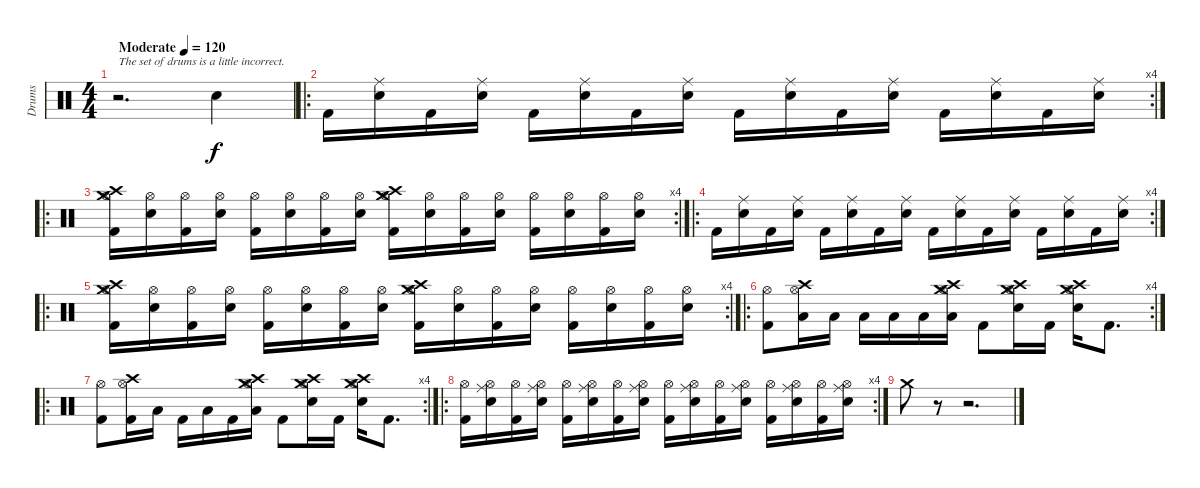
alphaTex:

\track ("Drums" "Drums") {instrument percussion}
\staff {score}
\articulation defaults
\ts (4 4)
\tempo (120 "Moderate")
\clef neutral
\ks c
r.2{d txt "The set of drums is a little incorrect." dy f} "Snare (hit) 2".4 |
\ro
\rc 4 "Kick (hit) 2".16
("Ride (middle)" "Snare (hit) 2").16 "Kick (hit) 2".16 ("Ride (middle)" "Snare (hit) 2").16 "Kick (hit) 2".16 ("Ride (middle)" "Snare (hit) 2").16 "Kick (hit) 2".16 ("Ride (middle)" "Snare (hit) 2").16 "Kick (hit) 2".16 ("Ride (middle)" "Snare (hit) 2").16 "Kick (hit) 2".16 ("Ride (middle)" "Snare (hit) 2").16 "Kick (hit) 2".16 ("Ride (middle)" "Snare (hit) 2").16 "Kick (hit) 2".16 ("Ride (middle)" "Snare (hit) 2").16 |
\ro
\rc 4
("Crash medium (hit)" "Crash high (hit)" "Hi-Hat (open)" "Kick (hit) 2").16 ("Hi-Hat (open)" "Snare (hit) 2").16 ("Hi-Hat (open)" "Kick (hit) 2").16 ("Hi-Hat (open)" "Snare (hit) 2").16 ("Hi-Hat (open)" "Kick (hit) 2").16 ("Hi-Hat (open)" "Snare (hit) 2").16 ("Hi-Hat (open)" "Kick (hit) 2").16 ("Hi-Hat (open)" "Snare (hit) 2").16 ("Crash medium (hit)" "Crash high (hit)" "Hi-Hat (open)" "Kick (hit) 2").16 ("Hi-Hat (open)" "Snare (hit) 2").16 ("Hi-Hat (open)" "Kick (hit) 2").16 ("Hi-Hat (open)" "Snare (hit) 2").16 ("Hi-Hat (open)" "Kick (hit) 2").16 ("Hi-Hat (open)" "Snare (hit) 2").16 ("Hi-Hat (open)" "Kick (hit) 2").16 ("Hi-Hat (open)" "Snare (hit) 2").16 |
\ro
\rc 4 "Kick (hit) 2".16
("Ride (middle)" "Snare (hit) 2").16 "Kick (hit) 2".16 ("Ride (middle)" "Snare (hit) 2").16 "Kick (hit) 2".16 ("Ride (middle)" "Snare (hit) 2").16 "Kick (hit) 2".16 ("Ride (middle)" "Snare (hit) 2").16 "Kick (hit) 2".16 ("Ride (middle)" "Snare (hit) 2").16 "Kick (hit) 2".16 ("Ride (middle)" "Snare (hit) 2").16 "Kick (hit) 2".16 ("Ride (middle)" "Snare (hit) 2").16 "Kick (hit) 2".16 ("Ride (middle)" "Snare (hit) 2").16 |
\ro
\rc 4
("Crash medium (hit)" "Crash high (hit)" "Hi-Hat (open)" "Kick (hit) 2").16 ("Hi-Hat (open)" "Snare (hit) 2").16 ("Hi-Hat (open)" "Kick (hit) 2").16 ("Hi-Hat (open)" "Snare (hit) 2").16 ("Hi-Hat (open)" "Kick (hit) 2").16 ("Hi-Hat (open)" "Snare (hit) 2").16 ("Hi-Hat (open)" "Kick (hit) 2").16 ("Hi-Hat (open)" "Snare (hit) 2").16 ("Crash medium (hit)" "Crash high (hit)" "Hi-Hat (open)" "Kick (hit) 2").16 ("Hi-Hat (open)" "Snare (hit) 2").16 ("Hi-Hat (open)" "Kick (hit) 2").16 ("Hi-Hat (open)" "Snare (hit) 2").16 ("Hi-Hat (open)" "Kick (hit) 2").16 ("Hi-Hat (open)" "Snare (hit) 2").16 ("Hi-Hat (open)" "Kick (hit) 2").16 ("Hi-Hat (open)" "Snare (hit) 2").16 |
\ro
\rc 4
("Hi-Hat (open)" "Kick (hit) 2").8 ("Crash high (hit)" "Hi-Hat (open)" "Low Tom (hit)").16 "Low Tom (hit)".16 "Low Tom (hit)".16 "Low Tom (hit)".16 "Low Tom (hit)".16 ("Crash high (hit)" "Hi-Hat (open)" "Crash medium (hit)" "Low Tom (hit)").16 "Kick (hit) 2".8 ("Crash high (hit)" "Hi-Hat (open)" "Crash medium (hit)" "Snare (hit) 2").16 "Kick (hit) 2".16 ("Crash high (hit)" "Hi-Hat (open)" "Crash medium (hit)" "Snare (hit) 2").16 "Kick (hit) 2".8{d} |
\ro
\rc 4
("Hi-Hat (open)" "Kick (hit) 2").8 ("Crash high (hit)" "Hi-Hat (open)" "Kick (hit) 2").16 "Low Tom (hit)".16 "Kick (hit) 2".16 "Low Tom (hit)".16 "Kick (hit) 2".16 ("Crash high (hit)" "Hi-Hat (open)" "Crash medium (hit)" "Low Tom (hit)").16 "Kick (hit) 2".8 ("Crash high (hit)" "Hi-Hat (open)" "Crash medium (hit)" "Snare (hit) 2").16 "Kick (hit) 2".16 ("Crash high (hit)" "Hi-Hat (open)" "Crash medium (hit)" "Snare (hit) 2").16 "Kick (hit) 2".8{d} |
\ro
\rc 4
("Hi-Hat (open)" "Kick (hit) 2").16 ("Hi-Hat (open)" "Ride (middle)" "Snare (hit) 2").16 ("Hi-Hat (open)" "Kick (hit) 2").16 ("Hi-Hat (open)" "Ride (middle)" "Snare (hit) 2").16 ("Hi-Hat (open)" "Kick (hit) 2").16 ("Hi-Hat (open)" "Ride (middle)" "Snare (hit) 2").16 ("Hi-Hat (open)" "Kick (hit) 2").16 ("Hi-Hat (open)" "Ride (middle)" "Snare (hit) 2").16 ("Hi-Hat (open)" "Kick (hit) 2").16 ("Hi-Hat (open)" "Ride (middle)" "Snare (hit) 2").16 ("Hi-Hat (open)" "Kick (hit) 2").16 ("Hi-Hat (open)" "Ride (middle)" "Snare (hit) 2").16 ("Hi-Hat (open)" "Kick (hit) 2").16 ("Hi-Hat (open)" "Ride (middle)" "Snare (hit) 2").16 ("Hi-Hat (open)" "Kick (hit) 2").16 ("Hi-Hat (open)" "Ride (middle)" "Snare (hit) 2").16 |
"Crash medium (hit)".8 r.8 r.2{d}
